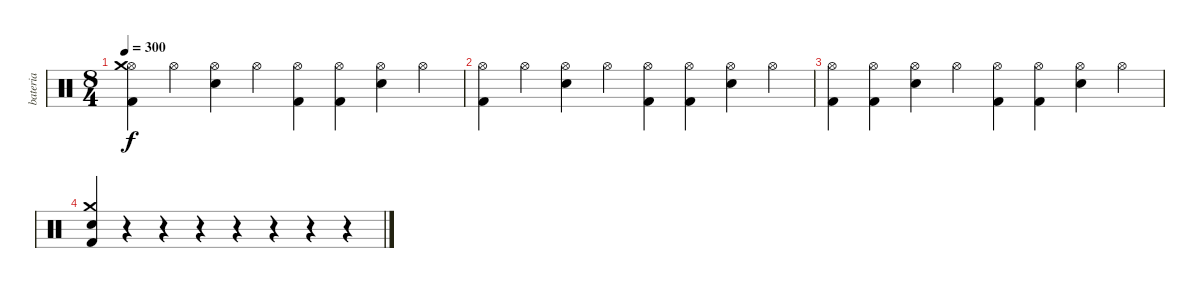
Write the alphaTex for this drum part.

\track ("bateria" "bateria") {instrument percussion}
\staff {score}
\articulation defaults
\ts (8 4)
\tempo 300
\clef neutral
\ks c
("Hi-Hat (open)" "Kick (hit) 2" "Crash medium (hit)").4{dy f} "Hi-Hat (open)".4 ("Hi-Hat (open)" "Electric Snare (hit)").4 "Hi-Hat (open)".4 ("Hi-Hat (open)" "Kick (hit) 2").4 ("Hi-Hat (open)" "Kick (hit) 2").4 ("Hi-Hat (open)" "Electric Snare (hit)").4 "Hi-Hat (open)".4 |
("Hi-Hat (open)" "Kick (hit) 2").4 "Hi-Hat (open)".4 ("Hi-Hat (open)" "Electric Snare (hit)").4 "Hi-Hat (open)".4 ("Hi-Hat (open)" "Kick (hit) 2").4 ("Hi-Hat (open)" "Kick (hit) 2").4 ("Hi-Hat (open)" "Electric Snare (hit)").4 "Hi-Hat (open)".4 |
("Hi-Hat (open)" "Kick (hit) 2").4 ("Hi-Hat (open)" "Kick (hit) 2").4 ("Hi-Hat (open)" "Electric Snare (hit)").4 "Hi-Hat (open)".4 ("Hi-Hat (open)" "Kick (hit) 2").4 ("Hi-Hat (open)" "Kick (hit) 2").4 ("Hi-Hat (open)" "Electric Snare (hit)").4 "Hi-Hat (open)".4 |
("Crash medium (hit)" "Electric Snare (hit)" "Kick (hit) 2").4 r.4 r.4 r.4 r.4 r.4 r.4 r.4
